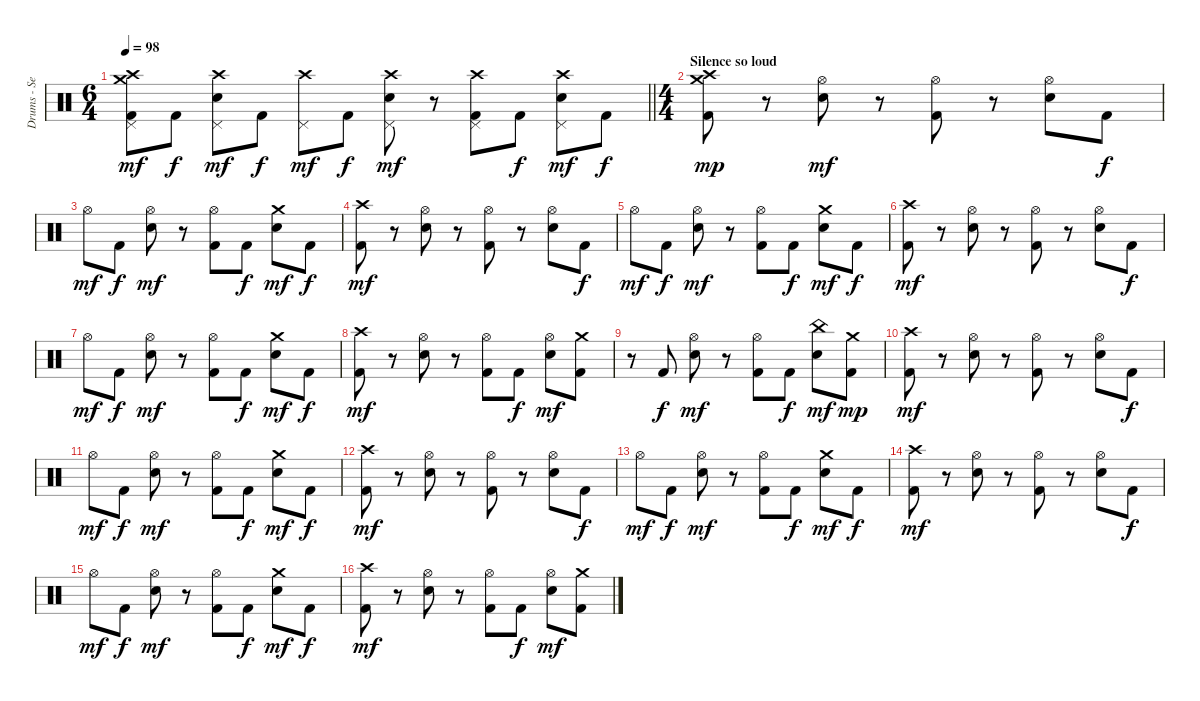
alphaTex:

\track ("Drums - Sean Kinney" "Drums - Se") {instrument percussion}
\staff {score}
\articulation defaults
\ts (6 4)
\tempo 98
\clef neutral
\barLineRight lightlight
\ks c
("Crash medium (hit)" "Crash high (hit)" "Pedal Hi-Hat (hit)" "Kick (hit) 2").8{dy mf} "Kick (hit) 2".8{dy f} ("Crash high (hit)" "Pedal Hi-Hat (hit)" "Snare (hit) 2").8{dy mf} "Kick (hit) 2".8{dy f} ("Crash high (hit)" "Pedal Hi-Hat (hit)").8{dy mf} "Kick (hit) 2".8{dy f} ("Crash high (hit)" "Pedal Hi-Hat (hit)" "Snare (hit) 2").8{dy mf} r.8 ("Crash high (hit)" "Pedal Hi-Hat (hit)" "Kick (hit) 2").8 "Kick (hit) 2".8{dy f} ("Crash high (hit)" "Pedal Hi-Hat (hit)" "Snare (hit) 2").8{dy mf} "Kick (hit) 2".8{dy f} |
\ts (4 4)
\section ("" "Silence so loud")
("Crash medium (hit)" "Crash high (hit)" "Kick (hit) 2").8{dy mp} r.8 ("Hi-Hat (open)" "Snare (hit) 2").8{dy mf} r.8 ("Hi-Hat (open)" "Kick (hit) 2").8 r.8 ("Hi-Hat (open)" "Snare (hit) 2").8 "Kick (hit) 2".8{dy f} |
"Hi-Hat (open)".8{dy mf} "Kick (hit) 2".8{dy f} ("Hi-Hat (open)" "Snare (hit) 2").8{dy mf} r.8 ("Hi-Hat (open)" "Kick (hit) 2").8 "Kick (hit) 2".8{dy f} ("Crash medium (hit)" "Snare (hit) 2").8{dy mf} "Kick (hit) 2".8{dy f} |
("Crash high (hit)" "Kick (hit) 2").8{dy mf} r.8 ("Hi-Hat (open)" "Snare (hit) 2").8 r.8 ("Hi-Hat (open)" "Kick (hit) 2").8 r.8 ("Hi-Hat (open)" "Snare (hit) 2").8 "Kick (hit) 2".8{dy f} |
"Hi-Hat (open)".8{dy mf} "Kick (hit) 2".8{dy f} ("Hi-Hat (open)" "Snare (hit) 2").8{dy mf} r.8 ("Hi-Hat (open)" "Kick (hit) 2").8 "Kick (hit) 2".8{dy f} ("Crash medium (hit)" "Snare (hit) 2").8{dy mf} "Kick (hit) 2".8{dy f} |
("Crash high (hit)" "Kick (hit) 2").8{dy mf} r.8 ("Hi-Hat (open)" "Snare (hit) 2").8 r.8 ("Hi-Hat (open)" "Kick (hit) 2").8 r.8 ("Hi-Hat (open)" "Snare (hit) 2").8 "Kick (hit) 2".8{dy f} |
"Hi-Hat (open)".8{dy mf} "Kick (hit) 2".8{dy f} ("Hi-Hat (open)" "Snare (hit) 2").8{dy mf} r.8 ("Hi-Hat (open)" "Kick (hit) 2").8 "Kick (hit) 2".8{dy f} ("Crash medium (hit)" "Snare (hit) 2").8{dy mf} "Kick (hit) 2".8{dy f} |
("Crash high (hit)" "Kick (hit) 2").8{dy mf} r.8 ("Hi-Hat (open)" "Snare (hit) 2").8 r.8 ("Hi-Hat (open)" "Kick (hit) 2").8 "Kick (hit) 2".8{dy f} ("Hi-Hat (open)" "Snare (hit) 2").8{dy mf} ("Crash medium (hit)" "Kick (hit) 2").8 |
r.8 "Kick (hit) 2".8{dy f} ("Hi-Hat (open)" "Snare (hit) 2").8{dy mf} r.8 ("Hi-Hat (open)" "Kick (hit) 2").8 "Kick (hit) 2".8{dy f} ("China (hit)" "Snare (hit) 2").8{dy mf} ("Crash medium (hit)" "Kick (hit) 2").8{dy mp} |
("Crash high (hit)" "Kick (hit) 2").8{dy mf} r.8 ("Hi-Hat (open)" "Snare (hit) 2").8 r.8 ("Hi-Hat (open)" "Kick (hit) 2").8 r.8 ("Hi-Hat (open)" "Snare (hit) 2").8 "Kick (hit) 2".8{dy f} |
"Hi-Hat (open)".8{dy mf} "Kick (hit) 2".8{dy f} ("Hi-Hat (open)" "Snare (hit) 2").8{dy mf} r.8 ("Hi-Hat (open)" "Kick (hit) 2").8 "Kick (hit) 2".8{dy f} ("Crash medium (hit)" "Snare (hit) 2").8{dy mf} "Kick (hit) 2".8{dy f} |
("Crash high (hit)" "Kick (hit) 2").8{dy mf} r.8 ("Hi-Hat (open)" "Snare (hit) 2").8 r.8 ("Hi-Hat (open)" "Kick (hit) 2").8 r.8 ("Hi-Hat (open)" "Snare (hit) 2").8 "Kick (hit) 2".8{dy f} |
"Hi-Hat (open)".8{dy mf} "Kick (hit) 2".8{dy f} ("Hi-Hat (open)" "Snare (hit) 2").8{dy mf} r.8 ("Hi-Hat (open)" "Kick (hit) 2").8 "Kick (hit) 2".8{dy f} ("Crash medium (hit)" "Snare (hit) 2").8{dy mf} "Kick (hit) 2".8{dy f} |
("Crash high (hit)" "Kick (hit) 2").8{dy mf} r.8 ("Hi-Hat (open)" "Snare (hit) 2").8 r.8 ("Hi-Hat (open)" "Kick (hit) 2").8 r.8 ("Hi-Hat (open)" "Snare (hit) 2").8 "Kick (hit) 2".8{dy f} |
"Hi-Hat (open)".8{dy mf} "Kick (hit) 2".8{dy f} ("Hi-Hat (open)" "Snare (hit) 2").8{dy mf} r.8 ("Hi-Hat (open)" "Kick (hit) 2").8 "Kick (hit) 2".8{dy f} ("Crash medium (hit)" "Snare (hit) 2").8{dy mf} "Kick (hit) 2".8{dy f} |
("Crash high (hit)" "Kick (hit) 2").8{dy mf} r.8 ("Hi-Hat (open)" "Snare (hit) 2").8 r.8 ("Hi-Hat (open)" "Kick (hit) 2").8 "Kick (hit) 2".8{dy f} ("Hi-Hat (open)" "Snare (hit) 2").8{dy mf} ("Crash medium (hit)" "Kick (hit) 2").8
